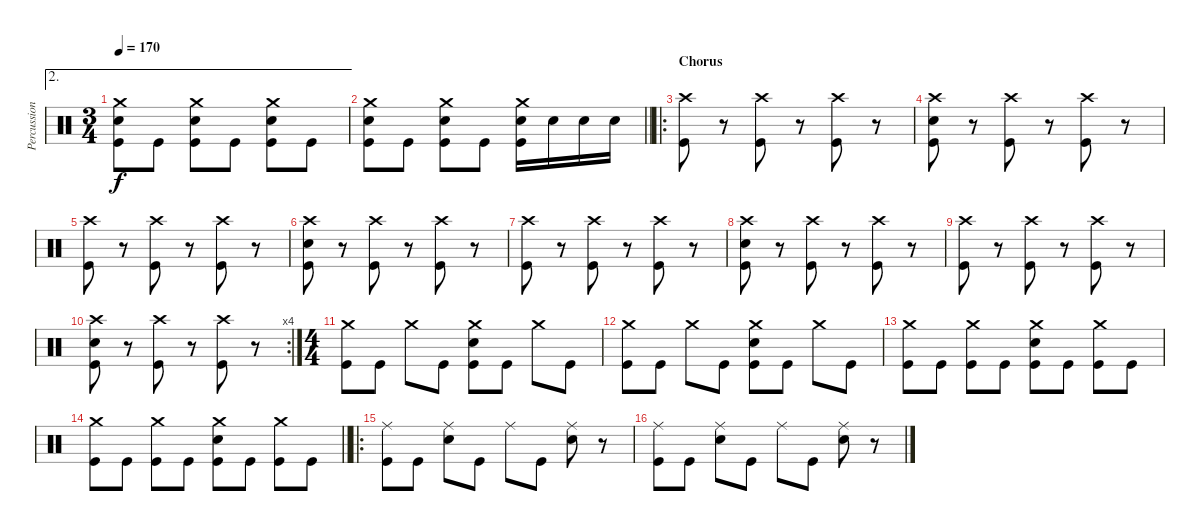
\track ("Percussion" "Percussion") {instrument percussion}
\staff {score}
\articulation defaults
\ae 2
\ts (3 4)
\tempo 170
\clef neutral
\ks c
("Crash medium (hit)" "Snare (hit) 2" "Kick (hit)").8{dy f} "Kick (hit)".8 ("Crash medium (hit)" "Snare (hit) 2" "Kick (hit)").8 "Kick (hit)".8 ("Crash medium (hit)" "Snare (hit) 2" "Kick (hit)").8 "Kick (hit)".8 |
\barLineRight lightlight
("Crash medium (hit)" "Snare (hit) 2" "Kick (hit)").8 "Kick (hit)".8 ("Crash medium (hit)" "Snare (hit) 2" "Kick (hit)").8 "Kick (hit)".8 ("Crash medium (hit)" "Snare (hit) 2" "Kick (hit)").16 "Snare (hit) 2".16 "Snare (hit) 2".16 "Snare (hit) 2".16 |
\ro
\section ("" "Chorus")
("Crash high (hit)" "Kick (hit)").8 r.8 ("Crash high (hit)" "Kick (hit)").8 r.8 ("Crash high (hit)" "Kick (hit)").8 r.8 |
("Crash high (hit)" "Snare (hit) 2" "Kick (hit)").8 r.8 ("Crash high (hit)" "Kick (hit)").8 r.8 ("Crash high (hit)" "Kick (hit)").8 r.8 |
("Crash high (hit)" "Kick (hit)").8 r.8 ("Crash high (hit)" "Kick (hit)").8 r.8 ("Crash high (hit)" "Kick (hit)").8 r.8 |
("Crash high (hit)" "Snare (hit) 2" "Kick (hit)").8 r.8 ("Crash high (hit)" "Kick (hit)").8 r.8 ("Crash high (hit)" "Kick (hit)").8 r.8 |
("Crash high (hit)" "Kick (hit)").8 r.8 ("Crash high (hit)" "Kick (hit)").8 r.8 ("Crash high (hit)" "Kick (hit)").8 r.8 |
("Crash high (hit)" "Snare (hit) 2" "Kick (hit)").8 r.8 ("Crash high (hit)" "Kick (hit)").8 r.8 ("Crash high (hit)" "Kick (hit)").8 r.8 |
("Crash high (hit)" "Kick (hit)").8 r.8 ("Crash high (hit)" "Kick (hit)").8 r.8 ("Crash high (hit)" "Kick (hit)").8 r.8 |
\rc 4
("Crash high (hit)" "Snare (hit) 2" "Kick (hit)").8 r.8 ("Crash high (hit)" "Kick (hit)").8 r.8 ("Crash high (hit)" "Kick (hit)").8 r.8 |
\ts (4 4)
("Crash medium (hit)" "Kick (hit)").8 "Kick (hit)".8 "Crash medium (hit)".8 "Kick (hit)".8 ("Crash medium (hit)" "Snare (hit) 2" "Kick (hit)").8 "Kick (hit)".8 "Crash medium (hit)".8 "Kick (hit)".8 |
("Crash medium (hit)" "Kick (hit)").8 "Kick (hit)".8 "Crash medium (hit)".8 "Kick (hit)".8 ("Crash medium (hit)" "Snare (hit) 2" "Kick (hit)").8 "Kick (hit)".8 "Crash medium (hit)".8 "Kick (hit)".8 |
("Crash medium (hit)" "Kick (hit)").8 "Kick (hit)".8 ("Crash medium (hit)" "Kick (hit)").8 "Kick (hit)".8 ("Crash medium (hit)" "Snare (hit) 2" "Kick (hit)").8 "Kick (hit)".8 ("Crash medium (hit)" "Kick (hit)").8 "Kick (hit)".8 |
\barLineRight lightlight
("Crash medium (hit)" "Kick (hit)").8 "Kick (hit)".8 ("Crash medium (hit)" "Kick (hit)").8 "Kick (hit)".8 ("Crash medium (hit)" "Snare (hit) 2" "Kick (hit)").8 "Kick (hit)".8 ("Crash medium (hit)" "Kick (hit)").8 "Kick (hit)".8 |
\ro
("Ride (middle)" "Kick (hit)").8 "Kick (hit)".8 ("Ride (middle)" "Snare (hit) 2").8 "Kick (hit)".8 "Ride (middle)".8 "Kick (hit)".8 ("Ride (middle)" "Snare (hit) 2").8 r.8 |
("Ride (middle)" "Kick (hit)").8 "Kick (hit)".8 ("Ride (middle)" "Snare (hit) 2").8 "Kick (hit)".8 "Ride (middle)".8 "Kick (hit)".8 ("Ride (middle)" "Snare (hit) 2").8 r.8
